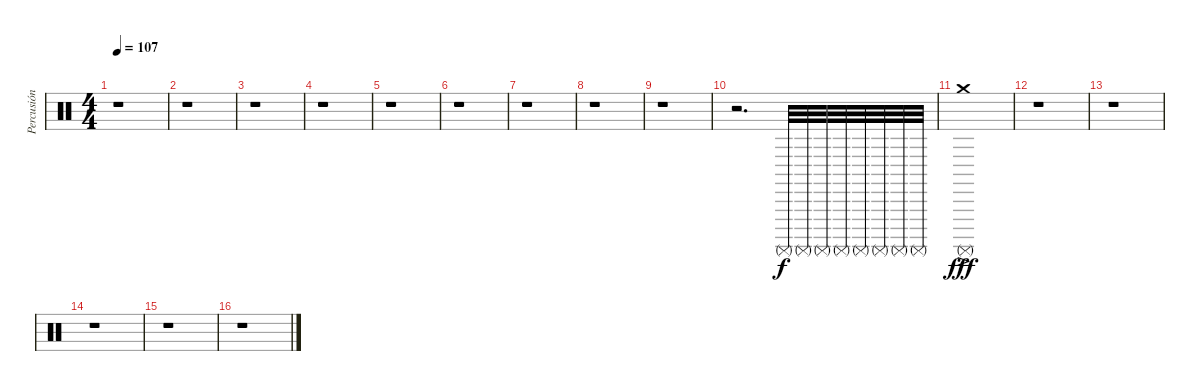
\track ("Percusión" "Percusión") {instrument percussion}
\staff {score}
\articulation defaults
\ts (4 4)
\tempo 107
\clef neutral
\ks c
r.1{dy f} |
r.1 |
r.1 |
r.1 |
r.1 |
r.1 |
r.1 |
r.1 |
r.1 |
r.2{d} "Surdo (mute)".32{volume 3} "Surdo (mute)".32{volume 4} "Surdo (mute)".32{volume 5} "Surdo (mute)".32{volume 6} "Surdo (mute)".32{volume 7} "Surdo (mute)".32{volume 8} "Surdo (mute)".32{volume 9} "Surdo (mute)".32{volume 10} |
("Surdo (mute)" "Crash medium (hit)"{ac}).1{dy fff volume 16} |
r.1 |
r.1 |
r.1 |
r.1 |
r.1
